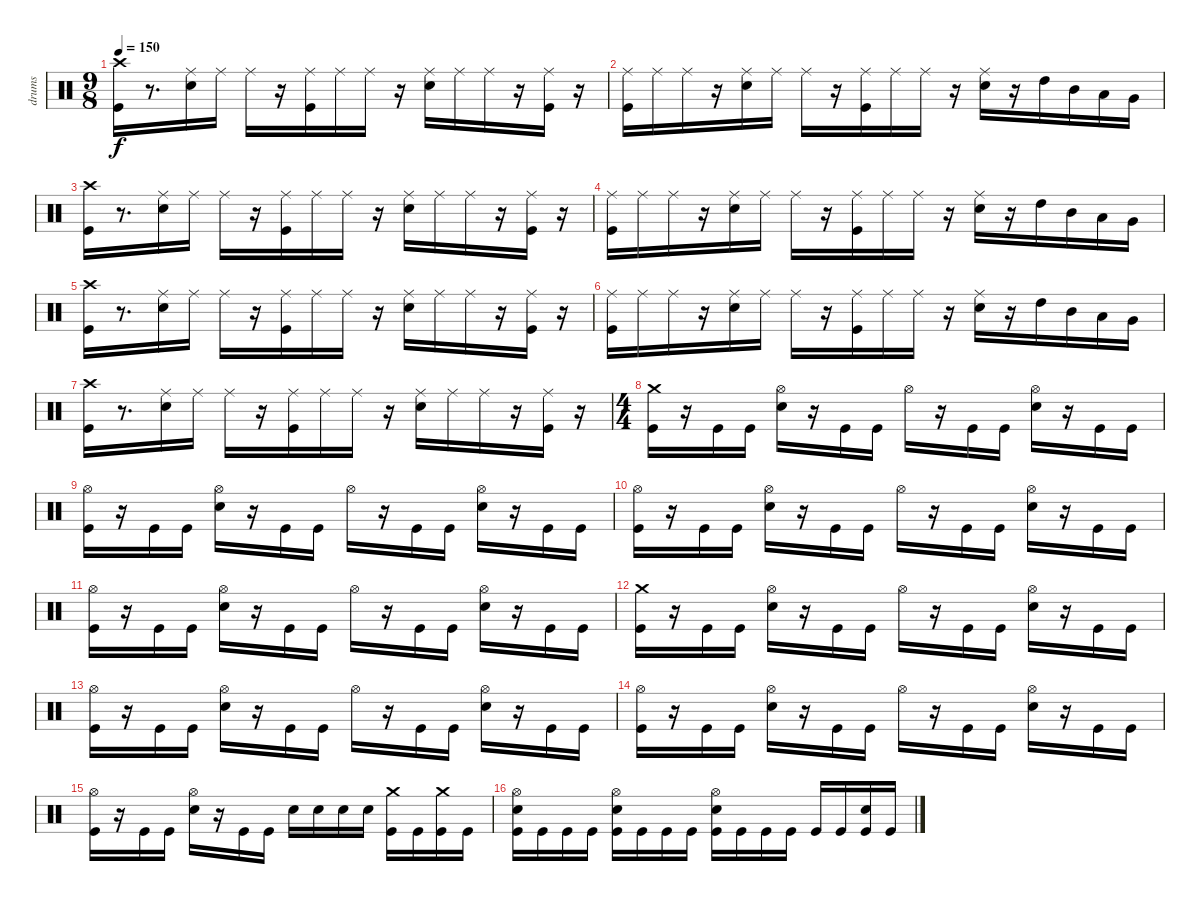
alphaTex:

\track ("drums" "drums") {instrument percussion}
\staff {score}
\articulation defaults
\ts (9 8)
\tempo 150
\clef neutral
\ks c
("Crash high (hit)" "Kick (hit)").16{dy f} r.8{d} ("Ride (middle)" "Electric Snare (hit)").16 "Ride (middle)".16 "Ride (middle)".16 r.16 ("Ride (middle)" "Kick (hit)").16 "Ride (middle)".16 "Ride (middle)".16 r.16 ("Ride (middle)" "Electric Snare (hit)").16 "Ride (middle)".16 "Ride (middle)".16 r.16 ("Ride (middle)" "Kick (hit)").16 r.16 |
("Ride (middle)" "Kick (hit)").16 "Ride (middle)".16 "Ride (middle)".16 r.16 ("Ride (middle)" "Electric Snare (hit)").16 "Ride (middle)".16 "Ride (middle)".16 r.16 ("Ride (middle)" "Kick (hit)").16 "Ride (middle)".16 "Ride (middle)".16 r.16 ("Ride (middle)" "Electric Snare (hit)").16 r.16 "High Tom (hit)".16 "Mid Tom (hit)".16 "Low Tom (hit)".16 "Very Low Tom (hit)".16 |
("Crash high (hit)" "Kick (hit)").16 r.8{d} ("Ride (middle)" "Electric Snare (hit)").16 "Ride (middle)".16 "Ride (middle)".16 r.16 ("Ride (middle)" "Kick (hit)").16 "Ride (middle)".16 "Ride (middle)".16 r.16 ("Ride (middle)" "Electric Snare (hit)").16 "Ride (middle)".16 "Ride (middle)".16 r.16 ("Ride (middle)" "Kick (hit)").16 r.16 |
("Ride (middle)" "Kick (hit)").16 "Ride (middle)".16 "Ride (middle)".16 r.16 ("Ride (middle)" "Electric Snare (hit)").16 "Ride (middle)".16 "Ride (middle)".16 r.16 ("Ride (middle)" "Kick (hit)").16 "Ride (middle)".16 "Ride (middle)".16 r.16 ("Ride (middle)" "Electric Snare (hit)").16 r.16 "High Tom (hit)".16 "Mid Tom (hit)".16 "Low Tom (hit)".16 "Very Low Tom (hit)".16 |
("Crash high (hit)" "Kick (hit)").16 r.8{d} ("Ride (middle)" "Electric Snare (hit)").16 "Ride (middle)".16 "Ride (middle)".16 r.16 ("Ride (middle)" "Kick (hit)").16 "Ride (middle)".16 "Ride (middle)".16 r.16 ("Ride (middle)" "Electric Snare (hit)").16 "Ride (middle)".16 "Ride (middle)".16 r.16 ("Ride (middle)" "Kick (hit)").16 r.16 |
("Ride (middle)" "Kick (hit)").16 "Ride (middle)".16 "Ride (middle)".16 r.16 ("Ride (middle)" "Electric Snare (hit)").16 "Ride (middle)".16 "Ride (middle)".16 r.16 ("Ride (middle)" "Kick (hit)").16 "Ride (middle)".16 "Ride (middle)".16 r.16 ("Ride (middle)" "Electric Snare (hit)").16 r.16 "High Tom (hit)".16 "Mid Tom (hit)".16 "Low Tom (hit)".16 "Very Low Tom (hit)".16 |
("Crash high (hit)" "Kick (hit)").16 r.8{d} ("Ride (middle)" "Electric Snare (hit)").16 "Ride (middle)".16 "Ride (middle)".16 r.16 ("Ride (middle)" "Kick (hit)").16 "Ride (middle)".16 "Ride (middle)".16 r.16 ("Ride (middle)" "Electric Snare (hit)").16 "Ride (middle)".16 "Ride (middle)".16 r.16 ("Ride (middle)" "Kick (hit)").16 r.16 |
\ts (4 4)
("Crash medium (hit)" "Kick (hit)").16 r.16 "Kick (hit)".16 "Kick (hit)".16 ("Hi-Hat (open)" "Electric Snare (hit)").16 r.16 "Kick (hit)".16 "Kick (hit)".16 "Hi-Hat (open)".16 r.16 "Kick (hit)".16 "Kick (hit)".16 ("Hi-Hat (open)" "Electric Snare (hit)").16 r.16 "Kick (hit)".16 "Kick (hit)".16 |
("Hi-Hat (open)" "Kick (hit)").16 r.16 "Kick (hit)".16 "Kick (hit)".16 ("Hi-Hat (open)" "Electric Snare (hit)").16 r.16 "Kick (hit)".16 "Kick (hit)".16 "Hi-Hat (open)".16 r.16 "Kick (hit)".16 "Kick (hit)".16 ("Electric Snare (hit)" "Hi-Hat (open)").16 r.16 "Kick (hit)".16 "Kick (hit)".16 |
("Hi-Hat (open)" "Kick (hit)").16 r.16 "Kick (hit)".16 "Kick (hit)".16 ("Hi-Hat (open)" "Electric Snare (hit)").16 r.16 "Kick (hit)".16 "Kick (hit)".16 "Hi-Hat (open)".16 r.16 "Kick (hit)".16 "Kick (hit)".16 ("Hi-Hat (open)" "Electric Snare (hit)").16 r.16 "Kick (hit)".16 "Kick (hit)".16 |
("Hi-Hat (open)" "Kick (hit)").16 r.16 "Kick (hit)".16 "Kick (hit)".16 ("Hi-Hat (open)" "Electric Snare (hit)").16 r.16 "Kick (hit)".16 "Kick (hit)".16 "Hi-Hat (open)".16 r.16 "Kick (hit)".16 "Kick (hit)".16 ("Electric Snare (hit)" "Hi-Hat (open)").16 r.16 "Kick (hit)".16 "Kick (hit)".16 |
("Crash medium (hit)" "Kick (hit)").16 r.16 "Kick (hit)".16 "Kick (hit)".16 ("Hi-Hat (open)" "Electric Snare (hit)").16 r.16 "Kick (hit)".16 "Kick (hit)".16 "Hi-Hat (open)".16 r.16 "Kick (hit)".16 "Kick (hit)".16 ("Hi-Hat (open)" "Electric Snare (hit)").16 r.16 "Kick (hit)".16 "Kick (hit)".16 |
("Hi-Hat (open)" "Kick (hit)").16 r.16 "Kick (hit)".16 "Kick (hit)".16 ("Hi-Hat (open)" "Electric Snare (hit)").16 r.16 "Kick (hit)".16 "Kick (hit)".16 "Hi-Hat (open)".16 r.16 "Kick (hit)".16 "Kick (hit)".16 ("Electric Snare (hit)" "Hi-Hat (open)").16 r.16 "Kick (hit)".16 "Kick (hit)".16 |
("Hi-Hat (open)" "Kick (hit)").16 r.16 "Kick (hit)".16 "Kick (hit)".16 ("Hi-Hat (open)" "Electric Snare (hit)").16 r.16 "Kick (hit)".16 "Kick (hit)".16 "Hi-Hat (open)".16 r.16 "Kick (hit)".16 "Kick (hit)".16 ("Hi-Hat (open)" "Electric Snare (hit)").16 r.16 "Kick (hit)".16 "Kick (hit)".16 |
("Hi-Hat (open)" "Kick (hit)").16 r.16 "Kick (hit)".16 "Kick (hit)".16 ("Hi-Hat (open)" "Electric Snare (hit)").16 r.16 "Kick (hit)".16 "Kick (hit)".16 "Electric Snare (hit)".16 "Electric Snare (hit)".16 "Electric Snare (hit)".16 "Electric Snare (hit)".16 ("Crash medium (hit)" "Kick (hit)").16 "Kick (hit)".16 ("Crash medium (hit)" "Kick (hit)").16 "Kick (hit)".16 |
("Hi-Hat (open)" "Electric Snare (hit)" "Kick (hit)").16 "Kick (hit)".16 "Kick (hit)".16 "Kick (hit)".16 ("Hi-Hat (open)" "Kick (hit)" "Electric Snare (hit)").16 "Kick (hit)".16 "Kick (hit)".16 "Kick (hit)".16 ("Hi-Hat (open)" "Kick (hit)" "Electric Snare (hit)").16 "Kick (hit)".16 "Kick (hit)".16 "Kick (hit)".16 "Kick (hit)".16 "Kick (hit)".16 ("Kick (hit)" "Electric Snare (hit)").16 "Kick (hit)".16
